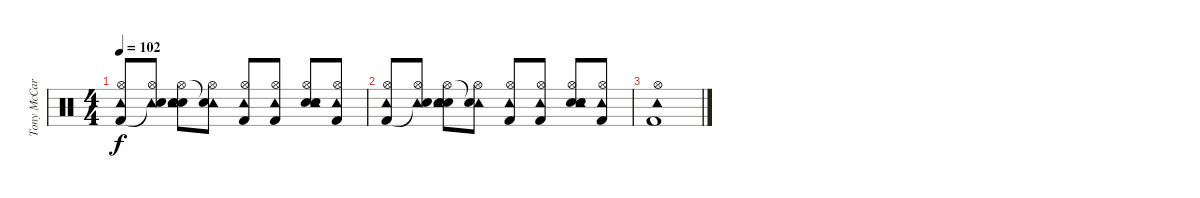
\track ("Tony McCaroll" "Tony McCar") {instrument percussion}
\staff {score}
\articulation defaults
\ts (4 4)
\tempo 102
\clef neutral
\ks c
("Tambourine (hit)" "Hi-Hat (open)" "Kick (hit) 2").8{dy f} ("Tambourine (hit)" "Hi-Hat (open)" "Snare (hit)"{t}).8 ("Hand Clap (hit)" "Tambourine (hit)" "Hi-Hat (open)" "Electric Snare (hit)").8 ("Tambourine (hit)" "Hi-Hat (open)" "Snare (hit)"{t}).8 ("Tambourine (hit)" "Hi-Hat (open)" "Kick (hit) 2").8 ("Tambourine (hit)" "Hi-Hat (open)" "Kick (hit) 2").8 ("Hand Clap (hit)" "Tambourine (hit)" "Hi-Hat (open)" "Electric Snare (hit)").8 ("Tambourine (hit)" "Hi-Hat (open)" "Kick (hit) 2").8 |
("Tambourine (hit)" "Hi-Hat (open)" "Kick (hit) 2").8 ("Tambourine (hit)" "Hi-Hat (open)" "Snare (hit)"{t}).8 ("Hand Clap (hit)" "Tambourine (hit)" "Hi-Hat (open)" "Electric Snare (hit)").8 ("Tambourine (hit)" "Hi-Hat (open)" "Snare (hit)"{t}).8 ("Tambourine (hit)" "Hi-Hat (open)" "Kick (hit) 2").8 ("Tambourine (hit)" "Hi-Hat (open)" "Kick (hit) 2").8 ("Hand Clap (hit)" "Tambourine (hit)" "Hi-Hat (open)" "Electric Snare (hit)").8 ("Tambourine (hit)" "Hi-Hat (open)" "Kick (hit) 2").8 |
("Tambourine (hit)" "Hi-Hat (open)" "Kick (hit) 2").1
